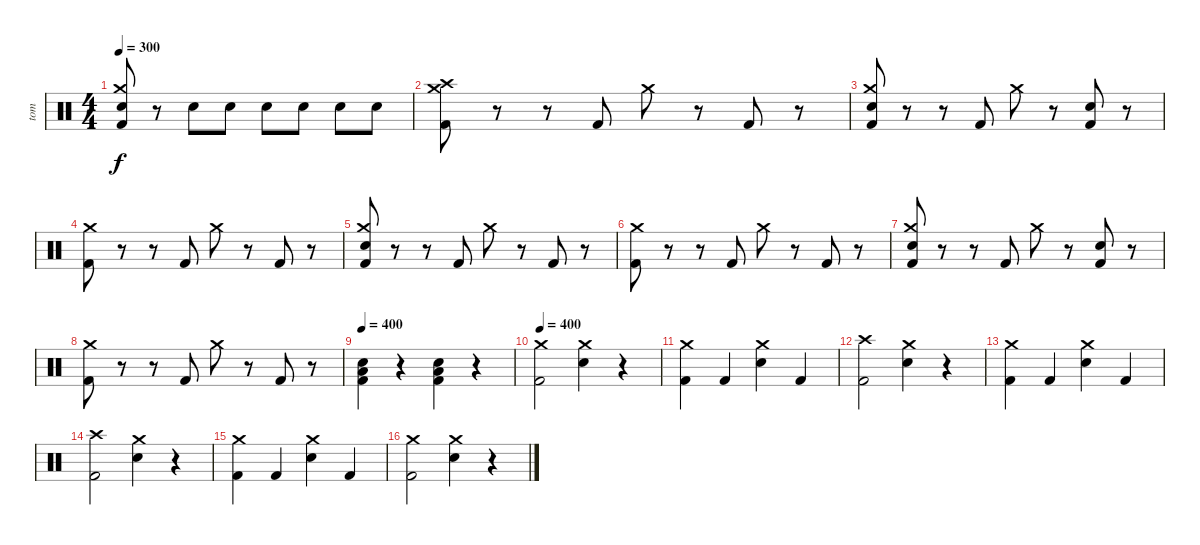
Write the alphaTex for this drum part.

\track ("tom" "tom") {instrument percussion}
\staff {score}
\articulation defaults
\ts (4 4)
\tempo 300
\clef neutral
\ks c
("Electric Snare (hit)" "Crash medium (hit)" "Kick (hit) 2").8{dy f} r.8 "Electric Snare (hit)".8 "Electric Snare (hit)".8 "Electric Snare (hit)".8 "Electric Snare (hit)".8 "Electric Snare (hit)".8 "Electric Snare (hit)".8 |
("Crash high (hit)" "Crash medium (hit)" "Kick (hit) 2").8 r.8 r.8 "Kick (hit) 2".8 "Crash medium (hit)".8 r.8 "Kick (hit) 2".8 r.8 |
("Electric Snare (hit)" "Crash medium (hit)" "Kick (hit) 2").8 r.8 r.8 "Kick (hit) 2".8 "Crash medium (hit)".8 r.8 ("Electric Snare (hit)" "Kick (hit) 2").8 r.8 |
("Crash medium (hit)" "Kick (hit) 2").8 r.8 r.8 "Kick (hit) 2".8 "Crash medium (hit)".8 r.8 "Kick (hit) 2".8 r.8 |
("Electric Snare (hit)" "Crash medium (hit)" "Kick (hit) 2").8 r.8 r.8 "Kick (hit) 2".8 "Crash medium (hit)".8 r.8 "Kick (hit) 2".8 r.8 |
("Crash medium (hit)" "Kick (hit) 2").8 r.8 r.8 "Kick (hit) 2".8 "Crash medium (hit)".8 r.8 "Kick (hit) 2".8 r.8 |
("Electric Snare (hit)" "Crash medium (hit)" "Kick (hit) 2").8 r.8 r.8 "Kick (hit) 2".8 "Crash medium (hit)".8 r.8 ("Electric Snare (hit)" "Kick (hit) 2").8 r.8 |
("Crash medium (hit)" "Kick (hit) 2").8 r.8 r.8 "Kick (hit) 2".8 "Crash medium (hit)".8 r.8 "Kick (hit) 2".8 r.8 |
\tempo 400
("Kick (hit) 2" "Low Tom (hit)" "Electric Snare (hit)").4 r.4 ("Kick (hit) 2" "Low Tom (hit)" "Electric Snare (hit)").4 r.4 |
\tempo 400
("Crash medium (hit)" "Kick (hit) 2").2 ("Crash medium (hit)" "Electric Snare (hit)").4 r.4 |
("Crash medium (hit)" "Kick (hit) 2").4 "Kick (hit) 2".4 ("Crash medium (hit)" "Electric Snare (hit)").4 "Kick (hit) 2".4 |
("Crash high (hit)" "Kick (hit) 2").2 ("Crash medium (hit)" "Electric Snare (hit)").4 r.4 |
("Crash medium (hit)" "Kick (hit) 2").4 "Kick (hit) 2".4 ("Crash medium (hit)" "Electric Snare (hit)").4 "Kick (hit) 2".4 |
("Crash high (hit)" "Kick (hit) 2").2 ("Crash medium (hit)" "Electric Snare (hit)").4 r.4 |
("Crash medium (hit)" "Kick (hit) 2").4 "Kick (hit) 2".4 ("Crash medium (hit)" "Electric Snare (hit)").4 "Kick (hit) 2".4 |
("Crash medium (hit)" "Kick (hit) 2").2 ("Crash medium (hit)" "Electric Snare (hit)").4 r.4
